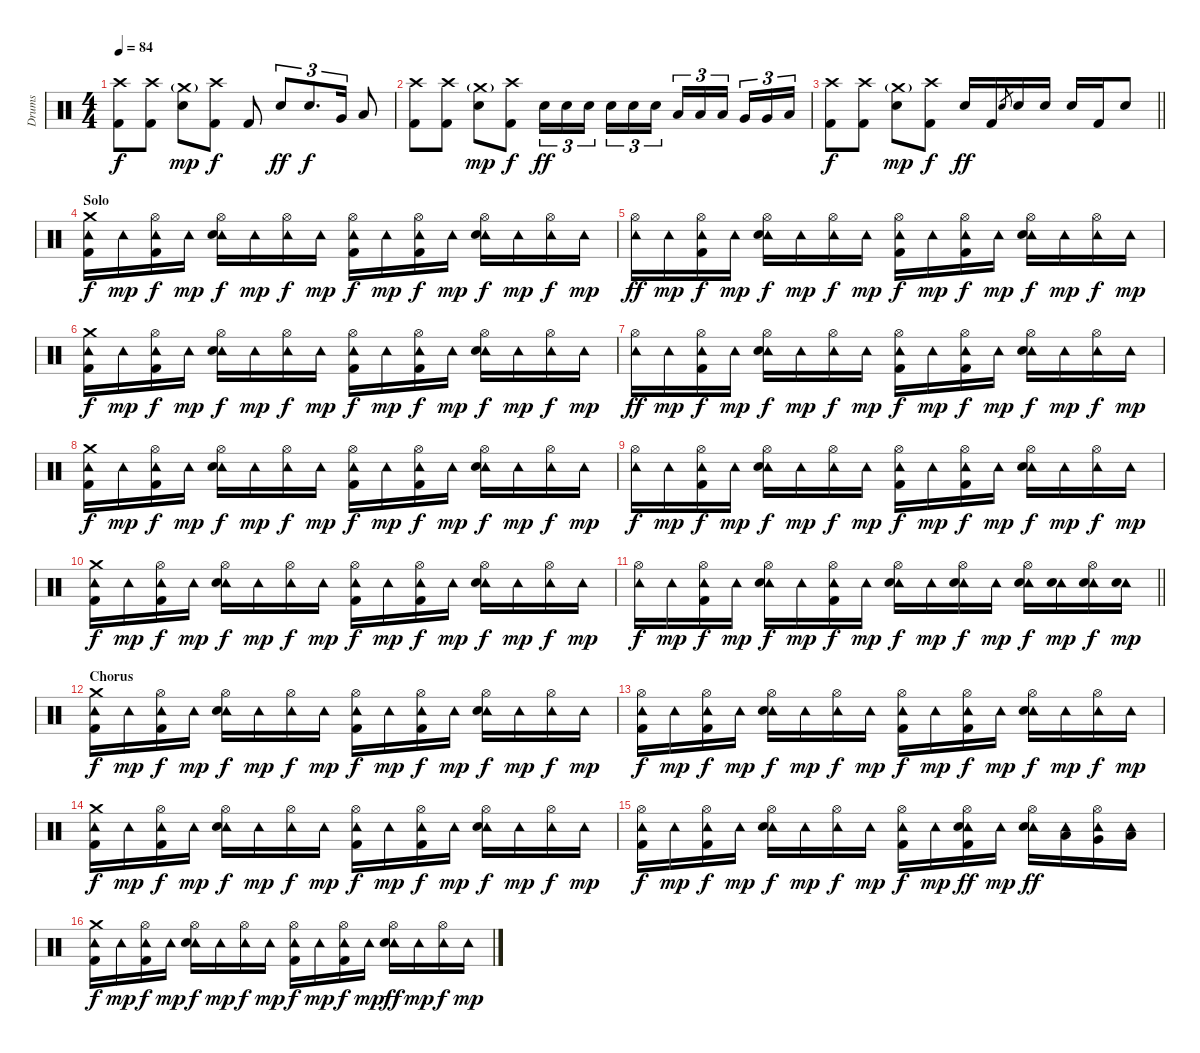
\track ("Drums" "Drums") {instrument percussion}
\staff {score}
\articulation defaults
\ts (4 4)
\tempo 84
\clef neutral
\ks c
("Crash high (hit)" "Kick (hit) 2").8{dy f} ("Crash high (hit)" "Kick (hit) 2").8 ("Crash medium (hit)"{g} "Electric Snare (hit)").8{dy mp} ("Crash high (hit)" "Kick (hit) 2").8{dy f} "Kick (hit) 2".8 "Electric Snare (hit)".8{tu (3 2) dy ff} "Electric Snare (hit)".8{d tu (3 2) dy f} "Very Low Tom (hit)".16{tu (3 2)} "Low Floor Tom (hit)".8 |
("Crash high (hit)" "Kick (hit) 2").8 ("Crash high (hit)" "Kick (hit) 2").8 ("Crash medium (hit)"{g} "Electric Snare (hit)").8{dy mp} ("Crash high (hit)" "Kick (hit) 2").8{dy f} "Electric Snare (hit)".16{tu (3 2) dy ff} "Electric Snare (hit)".16{tu (3 2)} "Electric Snare (hit)".16{tu (3 2) beam splitsecondary} "Electric Snare (hit)".16{tu (3 2)} "Electric Snare (hit)".16{tu (3 2)} "Electric Snare (hit)".16{tu (3 2)} "Low Tom (hit)".16{tu (3 2)} "Low Tom (hit)".16{tu (3 2)} "Low Tom (hit)".16{tu (3 2) beam splitsecondary} "Very Low Tom (hit)".16{tu (3 2)} "Very Low Tom (hit)".16{tu (3 2)} "Low Floor Tom (hit)".16{tu (3 2)} |
\barLineRight lightlight
("Crash high (hit)" "Kick (hit) 2").8{dy f} ("Crash high (hit)" "Kick (hit) 2").8 ("Crash medium (hit)"{g} "Electric Snare (hit)").8{dy mp} ("Crash high (hit)" "Kick (hit) 2").8{dy f} "Electric Snare (hit)".16{dy ff} "Kick (hit) 2".16 "Electric Snare (hit)".8{gr} "Electric Snare (hit)".16 "Electric Snare (hit)".16 "Electric Snare (hit)".16 "Kick (hit) 2".16 "Electric Snare (hit)".8 |
\section ("" "Solo")
("Crash medium (hit)" "Tambourine (hit)" "Kick (hit) 2").16{dy f} "Tambourine (hit)".16{dy mp} ("Hi-Hat (open)" "Tambourine (hit)" "Kick (hit) 2").16{dy f} "Tambourine (hit)".16{dy mp} ("Hi-Hat (open)" "Tambourine (hit)" "Electric Snare (hit)").16{dy f} "Tambourine (hit)".16{dy mp} ("Hi-Hat (open)" "Tambourine (hit)").16{dy f} "Tambourine (hit)".16{dy mp} ("Hi-Hat (open)" "Tambourine (hit)" "Kick (hit) 2").16{dy f} "Tambourine (hit)".16{dy mp} ("Hi-Hat (open)" "Tambourine (hit)" "Kick (hit) 2").16{dy f} "Tambourine (hit)".16{dy mp} ("Hi-Hat (open)" "Tambourine (hit)" "Electric Snare (hit)").16{dy f} "Tambourine (hit)".16{dy mp} ("Hi-Hat (open)" "Tambourine (hit)").16{dy f} "Tambourine (hit)".16{dy mp} |
("Hi-Hat (open)" "Tambourine (hit)").16{dy ff} "Tambourine (hit)".16{dy mp} ("Hi-Hat (open)" "Tambourine (hit)" "Kick (hit) 2").16{dy f} "Tambourine (hit)".16{dy mp} ("Hi-Hat (open)" "Tambourine (hit)" "Electric Snare (hit)").16{dy f} "Tambourine (hit)".16{dy mp} ("Hi-Hat (open)" "Tambourine (hit)").16{dy f} "Tambourine (hit)".16{dy mp} ("Hi-Hat (open)" "Tambourine (hit)" "Kick (hit) 2").16{dy f} "Tambourine (hit)".16{dy mp} ("Hi-Hat (open)" "Tambourine (hit)" "Kick (hit) 2").16{dy f} "Tambourine (hit)".16{dy mp} ("Hi-Hat (open)" "Tambourine (hit)" "Electric Snare (hit)").16{dy f} "Tambourine (hit)".16{dy mp} ("Hi-Hat (open)" "Tambourine (hit)").16{dy f} "Tambourine (hit)".16{dy mp} |
("Crash medium (hit)" "Tambourine (hit)" "Kick (hit) 2").16{dy f} "Tambourine (hit)".16{dy mp} ("Hi-Hat (open)" "Tambourine (hit)" "Kick (hit) 2").16{dy f} "Tambourine (hit)".16{dy mp} ("Hi-Hat (open)" "Tambourine (hit)" "Electric Snare (hit)").16{dy f} "Tambourine (hit)".16{dy mp} ("Hi-Hat (open)" "Tambourine (hit)").16{dy f} "Tambourine (hit)".16{dy mp} ("Hi-Hat (open)" "Tambourine (hit)" "Kick (hit) 2").16{dy f} "Tambourine (hit)".16{dy mp} ("Hi-Hat (open)" "Tambourine (hit)" "Kick (hit) 2").16{dy f} "Tambourine (hit)".16{dy mp} ("Hi-Hat (open)" "Tambourine (hit)" "Electric Snare (hit)").16{dy f} "Tambourine (hit)".16{dy mp} ("Hi-Hat (open)" "Tambourine (hit)").16{dy f} "Tambourine (hit)".16{dy mp} |
("Hi-Hat (open)" "Tambourine (hit)").16{dy ff} "Tambourine (hit)".16{dy mp} ("Hi-Hat (open)" "Tambourine (hit)" "Kick (hit) 2").16{dy f} "Tambourine (hit)".16{dy mp} ("Hi-Hat (open)" "Tambourine (hit)" "Electric Snare (hit)").16{dy f} "Tambourine (hit)".16{dy mp} ("Hi-Hat (open)" "Tambourine (hit)").16{dy f} "Tambourine (hit)".16{dy mp} ("Hi-Hat (open)" "Tambourine (hit)" "Kick (hit) 2").16{dy f} "Tambourine (hit)".16{dy mp} ("Hi-Hat (open)" "Tambourine (hit)" "Kick (hit) 2").16{dy f} "Tambourine (hit)".16{dy mp} ("Hi-Hat (open)" "Tambourine (hit)" "Electric Snare (hit)").16{dy f} "Tambourine (hit)".16{dy mp} ("Hi-Hat (open)" "Tambourine (hit)").16{dy f} "Tambourine (hit)".16{dy mp} |
("Crash medium (hit)" "Tambourine (hit)" "Kick (hit) 2").16{dy f} "Tambourine (hit)".16{dy mp} ("Hi-Hat (open)" "Tambourine (hit)" "Kick (hit) 2").16{dy f} "Tambourine (hit)".16{dy mp} ("Hi-Hat (open)" "Tambourine (hit)" "Electric Snare (hit)").16{dy f} "Tambourine (hit)".16{dy mp} ("Hi-Hat (open)" "Tambourine (hit)").16{dy f} "Tambourine (hit)".16{dy mp} ("Hi-Hat (open)" "Tambourine (hit)" "Kick (hit) 2").16{dy f} "Tambourine (hit)".16{dy mp} ("Hi-Hat (open)" "Tambourine (hit)" "Kick (hit) 2").16{dy f} "Tambourine (hit)".16{dy mp} ("Hi-Hat (open)" "Tambourine (hit)" "Electric Snare (hit)").16{dy f} "Tambourine (hit)".16{dy mp} ("Hi-Hat (open)" "Tambourine (hit)").16{dy f} "Tambourine (hit)".16{dy mp} |
("Hi-Hat (open)" "Tambourine (hit)").16{dy f} "Tambourine (hit)".16{dy mp} ("Hi-Hat (open)" "Tambourine (hit)" "Kick (hit) 2").16{dy f} "Tambourine (hit)".16{dy mp} ("Hi-Hat (open)" "Tambourine (hit)" "Electric Snare (hit)").16{dy f} "Tambourine (hit)".16{dy mp} ("Hi-Hat (open)" "Tambourine (hit)").16{dy f} "Tambourine (hit)".16{dy mp} ("Hi-Hat (open)" "Tambourine (hit)" "Kick (hit) 2").16{dy f} "Tambourine (hit)".16{dy mp} ("Hi-Hat (open)" "Tambourine (hit)" "Kick (hit) 2").16{dy f} "Tambourine (hit)".16{dy mp} ("Hi-Hat (open)" "Tambourine (hit)" "Electric Snare (hit)").16{dy f} "Tambourine (hit)".16{dy mp} ("Hi-Hat (open)" "Tambourine (hit)").16{dy f} "Tambourine (hit)".16{dy mp} |
("Crash medium (hit)" "Tambourine (hit)" "Kick (hit) 2").16{dy f} "Tambourine (hit)".16{dy mp} ("Hi-Hat (open)" "Tambourine (hit)" "Kick (hit) 2").16{dy f} "Tambourine (hit)".16{dy mp} ("Hi-Hat (open)" "Tambourine (hit)" "Electric Snare (hit)").16{dy f} "Tambourine (hit)".16{dy mp} ("Hi-Hat (open)" "Tambourine (hit)").16{dy f} "Tambourine (hit)".16{dy mp} ("Hi-Hat (open)" "Tambourine (hit)" "Kick (hit) 2").16{dy f} "Tambourine (hit)".16{dy mp} ("Hi-Hat (open)" "Tambourine (hit)" "Kick (hit) 2").16{dy f} "Tambourine (hit)".16{dy mp} ("Hi-Hat (open)" "Tambourine (hit)" "Electric Snare (hit)").16{dy f} "Tambourine (hit)".16{dy mp} ("Hi-Hat (open)" "Tambourine (hit)").16{dy f} "Tambourine (hit)".16{dy mp} |
\barLineRight lightlight
("Hi-Hat (open)" "Tambourine (hit)").16{dy f} "Tambourine (hit)".16{dy mp} ("Hi-Hat (open)" "Tambourine (hit)" "Kick (hit) 2").16{dy f} "Tambourine (hit)".16{dy mp} ("Hi-Hat (open)" "Tambourine (hit)" "Electric Snare (hit)").16{dy f} "Tambourine (hit)".16{dy mp} ("Hi-Hat (open)" "Tambourine (hit)" "Kick (hit) 2").16{dy f} "Tambourine (hit)".16{dy mp} ("Hi-Hat (open)" "Tambourine (hit)" "Electric Snare (hit)").16{dy f} "Tambourine (hit)".16{dy mp} ("Hi-Hat (open)" "Tambourine (hit)" "Electric Snare (hit)").16{dy f} "Tambourine (hit)".16{dy mp} ("Hi-Hat (open)" "Tambourine (hit)" "Electric Snare (hit)").16{dy f} ("Tambourine (hit)" "Electric Snare (hit)").16{dy mp} ("Hi-Hat (open)" "Tambourine (hit)" "Electric Snare (hit)").16{dy f} ("Tambourine (hit)" "Electric Snare (hit)").16{dy mp} |
\section ("" "Chorus")
("Crash medium (hit)" "Tambourine (hit)" "Kick (hit) 2").16{dy f} "Tambourine (hit)".16{dy mp} ("Hi-Hat (open)" "Tambourine (hit)" "Kick (hit) 2").16{dy f} "Tambourine (hit)".16{dy mp} ("Hi-Hat (open)" "Tambourine (hit)" "Electric Snare (hit)").16{dy f} "Tambourine (hit)".16{dy mp} ("Hi-Hat (open)" "Tambourine (hit)").16{dy f} "Tambourine (hit)".16{dy mp} ("Hi-Hat (open)" "Tambourine (hit)" "Kick (hit) 2").16{dy f} "Tambourine (hit)".16{dy mp} ("Hi-Hat (open)" "Tambourine (hit)" "Kick (hit) 2").16{dy f} "Tambourine (hit)".16{dy mp} ("Hi-Hat (open)" "Tambourine (hit)" "Electric Snare (hit)").16{dy f} "Tambourine (hit)".16{dy mp} ("Hi-Hat (open)" "Tambourine (hit)").16{dy f} "Tambourine (hit)".16{dy mp} |
("Hi-Hat (open)" "Tambourine (hit)" "Kick (hit) 2").16{dy f} "Tambourine (hit)".16{dy mp} ("Hi-Hat (open)" "Tambourine (hit)" "Kick (hit) 2").16{dy f} "Tambourine (hit)".16{dy mp} ("Hi-Hat (open)" "Tambourine (hit)" "Electric Snare (hit)").16{dy f} "Tambourine (hit)".16{dy mp} ("Hi-Hat (open)" "Tambourine (hit)").16{dy f} "Tambourine (hit)".16{dy mp} ("Hi-Hat (open)" "Tambourine (hit)" "Kick (hit) 2").16{dy f} "Tambourine (hit)".16{dy mp} ("Hi-Hat (open)" "Tambourine (hit)" "Kick (hit) 2").16{dy f} "Tambourine (hit)".16{dy mp} ("Hi-Hat (open)" "Tambourine (hit)" "Electric Snare (hit)").16{dy f} "Tambourine (hit)".16{dy mp} ("Hi-Hat (open)" "Tambourine (hit)").16{dy f} "Tambourine (hit)".16{dy mp} |
("Crash medium (hit)" "Tambourine (hit)" "Kick (hit) 2").16{dy f} "Tambourine (hit)".16{dy mp} ("Hi-Hat (open)" "Tambourine (hit)" "Kick (hit) 2").16{dy f} "Tambourine (hit)".16{dy mp} ("Hi-Hat (open)" "Tambourine (hit)" "Electric Snare (hit)").16{dy f} "Tambourine (hit)".16{dy mp} ("Hi-Hat (open)" "Tambourine (hit)").16{dy f} "Tambourine (hit)".16{dy mp} ("Hi-Hat (open)" "Tambourine (hit)" "Kick (hit) 2").16{dy f} "Tambourine (hit)".16{dy mp} ("Hi-Hat (open)" "Tambourine (hit)" "Kick (hit) 2").16{dy f} "Tambourine (hit)".16{dy mp} ("Hi-Hat (open)" "Tambourine (hit)" "Electric Snare (hit)").16{dy f} "Tambourine (hit)".16{dy mp} ("Hi-Hat (open)" "Tambourine (hit)").16{dy f} "Tambourine (hit)".16{dy mp} |
("Hi-Hat (open)" "Tambourine (hit)" "Kick (hit) 2").16{dy f} "Tambourine (hit)".16{dy mp} ("Hi-Hat (open)" "Tambourine (hit)" "Kick (hit) 2").16{dy f} "Tambourine (hit)".16{dy mp} ("Hi-Hat (open)" "Tambourine (hit)" "Electric Snare (hit)").16{dy f} "Tambourine (hit)".16{dy mp} ("Hi-Hat (open)" "Tambourine (hit)").16{dy f} "Tambourine (hit)".16{dy mp} ("Hi-Hat (open)" "Tambourine (hit)" "Kick (hit) 2").16{dy f} "Tambourine (hit)".16{dy mp} ("Hi-Hat (open)" "Tambourine (hit)" "Electric Snare (hit)" "Kick (hit) 2").16{dy ff} "Tambourine (hit)".16{dy mp} ("Hi-Hat (open)" "Tambourine (hit)" "Electric Snare (hit)").16{dy ff} ("Tambourine (hit)" "Low Tom (hit)").16 ("Hi-Hat (open)" "Tambourine (hit)" "Very Low Tom (hit)").16 ("Tambourine (hit)" "Low Floor Tom (hit)").16 |
("Crash medium (hit)" "Tambourine (hit)" "Kick (hit) 2").16{dy f} "Tambourine (hit)".16{dy mp} ("Hi-Hat (open)" "Tambourine (hit)" "Kick (hit) 2").16{dy f} "Tambourine (hit)".16{dy mp} ("Hi-Hat (open)" "Tambourine (hit)" "Electric Snare (hit)").16{dy f} "Tambourine (hit)".16{dy mp} ("Hi-Hat (open)" "Tambourine (hit)").16{dy f} "Tambourine (hit)".16{dy mp} ("Hi-Hat (open)" "Tambourine (hit)" "Kick (hit) 2").16{dy f} "Tambourine (hit)".16{dy mp} ("Hi-Hat (open)" "Tambourine (hit)" "Kick (hit) 2").16{dy f} "Tambourine (hit)".16{dy mp} ("Hi-Hat (open)" "Tambourine (hit)" "Electric Snare (hit)").16{dy ff} "Tambourine (hit)".16{dy mp} ("Hi-Hat (open)" "Tambourine (hit)").16{dy f} "Tambourine (hit)".16{dy mp}
